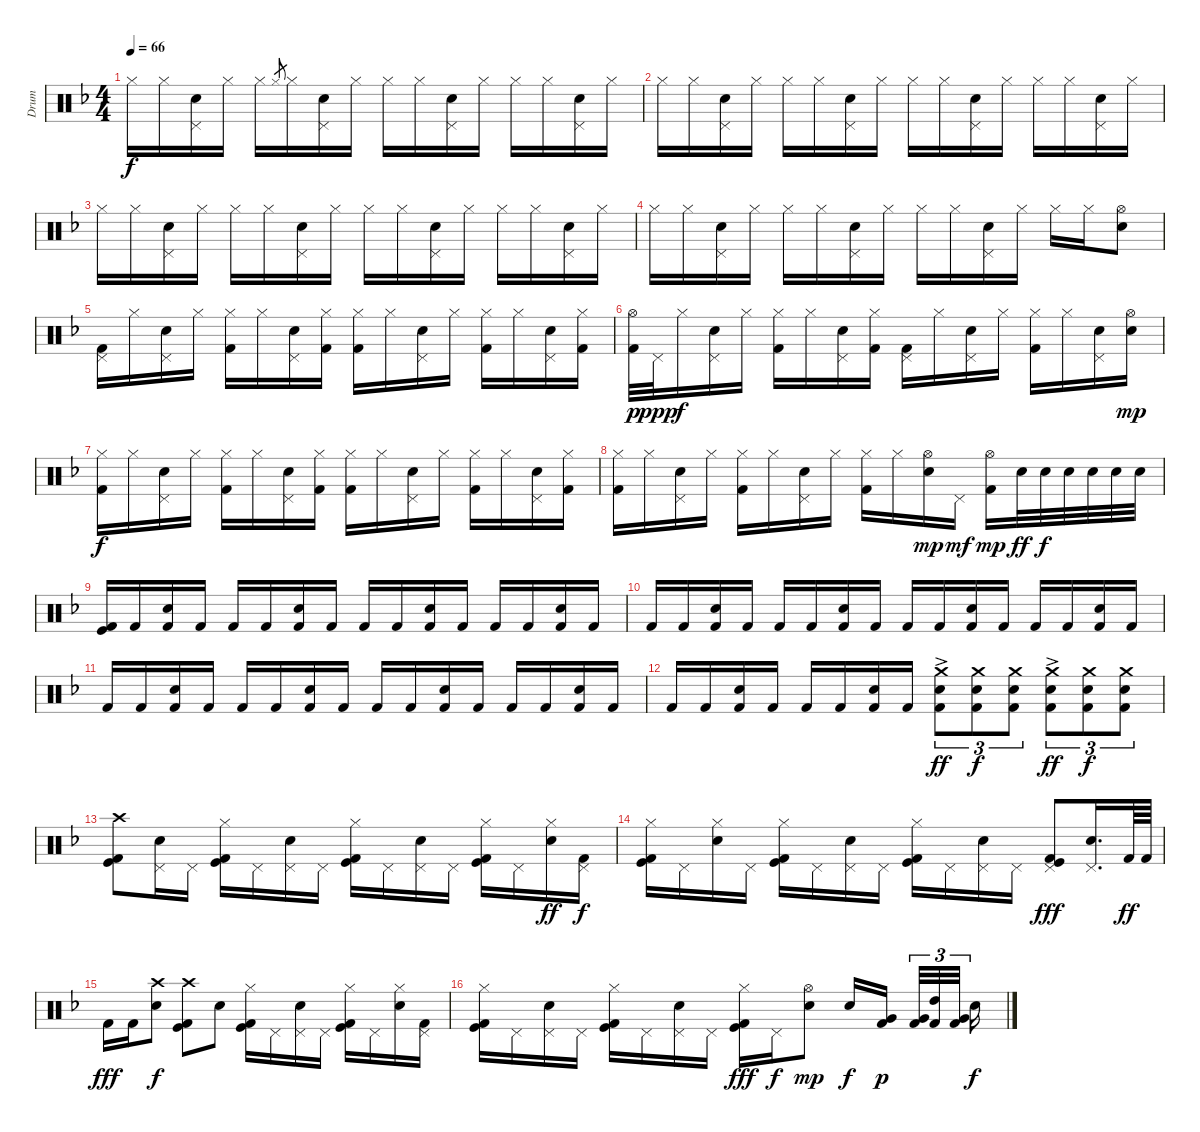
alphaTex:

\track ("Drum" "Drum") {instrument percussion}
\staff {score}
\articulation defaults
\ts (4 4)
\tempo 66
\clef neutral
\ks dminor "Hi-Hat (closed)".16{dy f} "Hi-Hat (closed)".16
("Electric Snare (hit)" "Pedal Hi-Hat (hit)").16 "Hi-Hat (closed)".16 "Hi-Hat (closed)".16 "Hi-Hat (closed)".8{gr} "Hi-Hat (closed)".16 ("Electric Snare (hit)" "Pedal Hi-Hat (hit)").16 "Hi-Hat (closed)".16 "Hi-Hat (closed)".16 "Hi-Hat (closed)".16 ("Electric Snare (hit)" "Pedal Hi-Hat (hit)").16 "Hi-Hat (closed)".16 "Hi-Hat (closed)".16 "Hi-Hat (closed)".16 ("Electric Snare (hit)" "Pedal Hi-Hat (hit)").16 "Hi-Hat (closed)".16 |
"Hi-Hat (closed)".16 "Hi-Hat (closed)".16 ("Electric Snare (hit)" "Pedal Hi-Hat (hit)").16 "Hi-Hat (closed)".16 "Hi-Hat (closed)".16 "Hi-Hat (closed)".16 ("Electric Snare (hit)" "Pedal Hi-Hat (hit)").16 "Hi-Hat (closed)".16 "Hi-Hat (closed)".16 "Hi-Hat (closed)".16 ("Electric Snare (hit)" "Pedal Hi-Hat (hit)").16 "Hi-Hat (closed)".16 "Hi-Hat (closed)".16 "Hi-Hat (closed)".16 ("Electric Snare (hit)" "Pedal Hi-Hat (hit)").16 "Hi-Hat (closed)".16 |
"Hi-Hat (closed)".16 "Hi-Hat (closed)".16 ("Electric Snare (hit)" "Pedal Hi-Hat (hit)").16 "Hi-Hat (closed)".16 "Hi-Hat (closed)".16 "Hi-Hat (closed)".16 ("Electric Snare (hit)" "Pedal Hi-Hat (hit)").16 "Hi-Hat (closed)".16 "Hi-Hat (closed)".16 "Hi-Hat (closed)".16 ("Electric Snare (hit)" "Pedal Hi-Hat (hit)").16 "Hi-Hat (closed)".16 "Hi-Hat (closed)".16 "Hi-Hat (closed)".16 ("Electric Snare (hit)" "Pedal Hi-Hat (hit)").16 "Hi-Hat (closed)".16 |
"Hi-Hat (closed)".16 "Hi-Hat (closed)".16 ("Electric Snare (hit)" "Pedal Hi-Hat (hit)").16 "Hi-Hat (closed)".16 "Hi-Hat (closed)".16 "Hi-Hat (closed)".16 ("Electric Snare (hit)" "Pedal Hi-Hat (hit)").16 "Hi-Hat (closed)".16 "Hi-Hat (closed)".16 "Hi-Hat (closed)".16 ("Electric Snare (hit)" "Pedal Hi-Hat (hit)").16 "Hi-Hat (closed)".16 "Hi-Hat (closed)".16 "Hi-Hat (closed)".16 ("Electric Snare (hit)" "Hi-Hat (open)").8 |
("Kick (hit) 2" "Pedal Hi-Hat (hit)").16 "Hi-Hat (closed)".16 ("Electric Snare (hit)" "Pedal Hi-Hat (hit)").16 "Hi-Hat (closed)".16 ("Kick (hit) 2" "Hi-Hat (closed)").16 "Hi-Hat (closed)".16 ("Electric Snare (hit)" "Pedal Hi-Hat (hit)").16 ("Kick (hit) 2" "Hi-Hat (closed)").16 ("Kick (hit) 2" "Hi-Hat (closed)").16 "Hi-Hat (closed)".16 ("Electric Snare (hit)" "Pedal Hi-Hat (hit)").16 "Hi-Hat (closed)".16 ("Kick (hit) 2" "Hi-Hat (closed)").16 "Hi-Hat (closed)".16 ("Electric Snare (hit)" "Pedal Hi-Hat (hit)").16 ("Kick (hit) 2" "Hi-Hat (closed)").16 |
("Kick (hit) 2" "Hi-Hat (open)").32{dy p} "Pedal Hi-Hat (hit)".32{dy ppp} "Hi-Hat (closed)".16{dy f} ("Electric Snare (hit)" "Pedal Hi-Hat (hit)").16 "Hi-Hat (closed)".16 ("Kick (hit) 2" "Hi-Hat (closed)").16 "Hi-Hat (closed)".16 ("Electric Snare (hit)" "Pedal Hi-Hat (hit)").16 ("Kick (hit) 2" "Hi-Hat (closed)").16 ("Kick (hit) 2" "Pedal Hi-Hat (hit)").16 "Hi-Hat (closed)".16 ("Electric Snare (hit)" "Pedal Hi-Hat (hit)").16 "Hi-Hat (closed)".16 ("Kick (hit) 2" "Hi-Hat (closed)").16 "Hi-Hat (closed)".16 ("Electric Snare (hit)" "Pedal Hi-Hat (hit)").16 ("Electric Snare (hit)" "Hi-Hat (open)").16{dy mp} |
("Kick (hit) 2" "Hi-Hat (closed)").16{dy f} "Hi-Hat (closed)".16 ("Electric Snare (hit)" "Pedal Hi-Hat (hit)").16 "Hi-Hat (closed)".16 ("Kick (hit) 2" "Hi-Hat (closed)").16 "Hi-Hat (closed)".16 ("Electric Snare (hit)" "Pedal Hi-Hat (hit)").16 ("Kick (hit) 2" "Hi-Hat (closed)").16 ("Kick (hit) 2" "Hi-Hat (closed)").16 "Hi-Hat (closed)".16 ("Electric Snare (hit)" "Pedal Hi-Hat (hit)").16 "Hi-Hat (closed)".16 ("Kick (hit) 2" "Hi-Hat (closed)").16 "Hi-Hat (closed)".16 ("Electric Snare (hit)" "Pedal Hi-Hat (hit)").16 ("Kick (hit) 2" "Hi-Hat (closed)").16 |
("Kick (hit) 2" "Hi-Hat (closed)").16 "Hi-Hat (closed)".16 ("Electric Snare (hit)" "Pedal Hi-Hat (hit)").16 "Hi-Hat (closed)".16 ("Kick (hit) 2" "Hi-Hat (closed)").16 "Hi-Hat (closed)".16 ("Electric Snare (hit)" "Pedal Hi-Hat (hit)").16 "Hi-Hat (closed)".16 ("Kick (hit) 2" "Hi-Hat (closed)").16 "Hi-Hat (closed)".16 ("Electric Snare (hit)" "Hi-Hat (open)").16{dy mp} "Pedal Hi-Hat (hit)".16{dy mf} ("Kick (hit) 2" "Hi-Hat (open)").16{dy mp} "Electric Snare (hit)".32{dy ff} "Electric Snare (hit)".32{dy f} "Electric Snare (hit)".32 "Electric Snare (hit)".32 "Electric Snare (hit)".32 "Electric Snare (hit)".32 |
("Kick (hit)" "Kick (hit) 2").16 "Kick (hit) 2".16 ("Electric Snare (hit)" "Kick (hit) 2").16 "Kick (hit) 2".16 "Kick (hit) 2".16 "Kick (hit) 2".16 ("Electric Snare (hit)" "Kick (hit) 2").16 "Kick (hit) 2".16 "Kick (hit) 2".16 "Kick (hit) 2".16 ("Electric Snare (hit)" "Kick (hit) 2").16 "Kick (hit) 2".16 "Kick (hit) 2".16 "Kick (hit) 2".16 ("Electric Snare (hit)" "Kick (hit) 2").16 "Kick (hit) 2".16 |
"Kick (hit) 2".16 "Kick (hit) 2".16 ("Electric Snare (hit)" "Kick (hit) 2").16 "Kick (hit) 2".16 "Kick (hit) 2".16 "Kick (hit) 2".16 ("Electric Snare (hit)" "Kick (hit) 2").16 "Kick (hit) 2".16 "Kick (hit) 2".16 "Kick (hit) 2".16 ("Electric Snare (hit)" "Kick (hit) 2").16 "Kick (hit) 2".16 "Kick (hit) 2".16 "Kick (hit) 2".16 ("Electric Snare (hit)" "Kick (hit) 2").16 "Kick (hit) 2".16 |
"Kick (hit) 2".16 "Kick (hit) 2".16 ("Electric Snare (hit)" "Kick (hit) 2").16 "Kick (hit) 2".16 "Kick (hit) 2".16 "Kick (hit) 2".16 ("Electric Snare (hit)" "Kick (hit) 2").16 "Kick (hit) 2".16 "Kick (hit) 2".16 "Kick (hit) 2".16 ("Electric Snare (hit)" "Kick (hit) 2").16 "Kick (hit) 2".16 "Kick (hit) 2".16 "Kick (hit) 2".16 ("Electric Snare (hit)" "Kick (hit) 2").16 "Kick (hit) 2".16 |
"Kick (hit) 2".16 "Kick (hit) 2".16 ("Electric Snare (hit)" "Kick (hit) 2").16 "Kick (hit) 2".16 "Kick (hit) 2".16 "Kick (hit) 2".16 ("Electric Snare (hit)" "Kick (hit) 2").16 "Kick (hit) 2".16 ("Electric Snare (hit)" "Kick (hit) 2" "Crash medium (hit)"{ac}).8{tu (3 2) dy ff} ("Electric Snare (hit)" "Kick (hit) 2" "Crash medium (hit)").8{tu (3 2) dy f} ("Electric Snare (hit)" "Kick (hit) 2" "Crash medium (hit)").8{tu (3 2)} ("Electric Snare (hit)" "Kick (hit) 2" "Crash medium (hit)"{ac}).8{tu (3 2) dy ff} ("Electric Snare (hit)" "Kick (hit) 2" "Crash medium (hit)").8{tu (3 2) dy f} ("Electric Snare (hit)" "Kick (hit) 2" "Crash medium (hit)").8{tu (3 2)} |
("Kick (hit)" "Kick (hit) 2" "Crash high (hit)").8 ("Electric Snare (hit)" "Pedal Hi-Hat (hit)").16 "Pedal Hi-Hat (hit)".16 ("Kick (hit)" "Kick (hit) 2" "Hi-Hat (closed)").16 "Pedal Hi-Hat (hit)".16 ("Electric Snare (hit)" "Pedal Hi-Hat (hit)").16 "Pedal Hi-Hat (hit)".16 ("Kick (hit)" "Kick (hit) 2" "Hi-Hat (closed)").16 "Pedal Hi-Hat (hit)".16 ("Electric Snare (hit)" "Pedal Hi-Hat (hit)").16 "Pedal Hi-Hat (hit)".16 ("Kick (hit)" "Kick (hit) 2" "Hi-Hat (closed)").16 "Pedal Hi-Hat (hit)".16 ("Electric Snare (hit)" "Hi-Hat (closed)").16{dy ff} ("Kick (hit) 2" "Pedal Hi-Hat (hit)").16{dy f} |
("Kick (hit)" "Kick (hit) 2" "Hi-Hat (closed)").16 "Pedal Hi-Hat (hit)".16 ("Electric Snare (hit)" "Hi-Hat (closed)").16 "Pedal Hi-Hat (hit)".16 ("Kick (hit)" "Kick (hit) 2" "Hi-Hat (closed)").16 "Pedal Hi-Hat (hit)".16 ("Electric Snare (hit)" "Pedal Hi-Hat (hit)").16 "Pedal Hi-Hat (hit)".16 ("Kick (hit)" "Kick (hit) 2" "Hi-Hat (closed)").16 "Pedal Hi-Hat (hit)".16 ("Electric Snare (hit)" "Pedal Hi-Hat (hit)").16 "Pedal Hi-Hat (hit)".16 ("Kick (hit)" "Kick (hit) 2" "Pedal Hi-Hat (hit)").8{dy fff} ("Electric Snare (hit)" "Pedal Hi-Hat (hit)").16{d} "Kick (hit) 2".64{dy ff} "Kick (hit) 2".64 |
"Kick (hit) 2".16{dy fff} "Kick (hit) 2".16 ("Electric Snare (hit)" "Crash high (hit)").8{dy f} ("Kick (hit)" "Kick (hit) 2" "Crash high (hit)").8 "Electric Snare (hit)".8 ("Kick (hit)" "Kick (hit) 2" "Hi-Hat (closed)").16 "Pedal Hi-Hat (hit)".16 ("Electric Snare (hit)" "Pedal Hi-Hat (hit)").16 "Pedal Hi-Hat (hit)".16 ("Kick (hit)" "Kick (hit) 2" "Hi-Hat (closed)").16 "Pedal Hi-Hat (hit)".16 ("Electric Snare (hit)" "Hi-Hat (closed)").16 ("Kick (hit) 2" "Pedal Hi-Hat (hit)").16 |
("Kick (hit)" "Kick (hit) 2" "Hi-Hat (closed)").16 "Pedal Hi-Hat (hit)".16 ("Electric Snare (hit)" "Pedal Hi-Hat (hit)").16 "Pedal Hi-Hat (hit)".16 ("Kick (hit)" "Kick (hit) 2" "Hi-Hat (closed)").16 "Pedal Hi-Hat (hit)".16 ("Electric Snare (hit)" "Pedal Hi-Hat (hit)").16 "Pedal Hi-Hat (hit)".16 ("Kick (hit)" "Kick (hit) 2" "Hi-Hat (closed)").16{dy fff} "Pedal Hi-Hat (hit)".16{dy f} ("Electric Snare (hit)" "Hi-Hat (open)").8{dy mp} "Electric Snare (hit)".16{dy f} ("Kick (hit) 2" "Very Low Tom (hit)").16{dy p beam splitsecondary} ("Kick (hit) 2" "Very Low Tom (hit)").32{tu (3 2)} ("Kick (hit) 2" "High Tom (hit)").32{tu (3 2)} ("Kick (hit) 2" "Very Low Tom (hit)").32{tu (3 2) beam splitsecondary} "Electric Snare (hit)".16{dy f}
